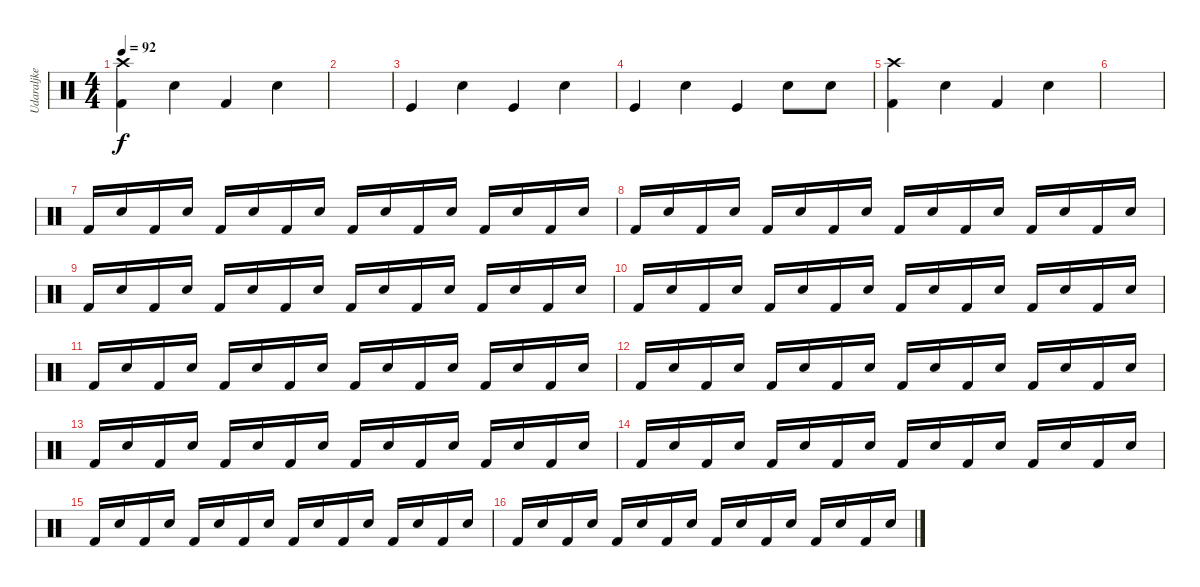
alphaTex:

\track ("Udaraljke" "Udaraljke") {instrument percussion}
\staff {score}
\articulation defaults
\ts (4 4)
\tempo 92
\clef neutral
\ks c
("Crash high (hit)" "Kick (hit) 2").4{dy f} "Electric Snare (hit)".4 "Kick (hit) 2".4 "Electric Snare (hit)".4 |
|
"Kick (hit)".4 "Electric Snare (hit)".4 "Kick (hit)".4 "Electric Snare (hit)".4 |
"Kick (hit)".4 "Electric Snare (hit)".4 "Kick (hit)".4 "Electric Snare (hit)".8 "Snare (hit) 2".8 |
("Crash high (hit)" "Kick (hit) 2").4 "Electric Snare (hit)".4 "Kick (hit) 2".4 "Electric Snare (hit)".4 |
|
"Kick (hit) 2".16 "Electric Snare (hit)".16 "Kick (hit) 2".16 "Electric Snare (hit)".16 "Kick (hit) 2".16 "Electric Snare (hit)".16 "Kick (hit) 2".16 "Electric Snare (hit)".16 "Kick (hit) 2".16 "Electric Snare (hit)".16 "Kick (hit) 2".16 "Electric Snare (hit)".16 "Kick (hit) 2".16 "Electric Snare (hit)".16 "Kick (hit) 2".16 "Snare (hit) 2".16 |
"Kick (hit) 2".16 "Electric Snare (hit)".16 "Kick (hit) 2".16 "Electric Snare (hit)".16 "Kick (hit) 2".16 "Electric Snare (hit)".16 "Kick (hit) 2".16 "Electric Snare (hit)".16 "Kick (hit) 2".16 "Electric Snare (hit)".16 "Kick (hit) 2".16 "Electric Snare (hit)".16 "Kick (hit) 2".16 "Electric Snare (hit)".16 "Kick (hit) 2".16 "Snare (hit) 2".16 |
"Kick (hit) 2".16 "Electric Snare (hit)".16 "Kick (hit) 2".16 "Electric Snare (hit)".16 "Kick (hit) 2".16 "Electric Snare (hit)".16 "Kick (hit) 2".16 "Electric Snare (hit)".16 "Kick (hit) 2".16 "Electric Snare (hit)".16 "Kick (hit) 2".16 "Electric Snare (hit)".16 "Kick (hit) 2".16 "Electric Snare (hit)".16 "Kick (hit) 2".16 "Snare (hit) 2".16 |
"Kick (hit) 2".16 "Electric Snare (hit)".16 "Kick (hit) 2".16 "Electric Snare (hit)".16 "Kick (hit) 2".16 "Electric Snare (hit)".16 "Kick (hit) 2".16 "Electric Snare (hit)".16 "Kick (hit) 2".16 "Electric Snare (hit)".16 "Kick (hit) 2".16 "Electric Snare (hit)".16 "Kick (hit) 2".16 "Electric Snare (hit)".16 "Kick (hit) 2".16 "Snare (hit) 2".16 |
"Kick (hit) 2".16 "Electric Snare (hit)".16 "Kick (hit) 2".16 "Electric Snare (hit)".16 "Kick (hit) 2".16 "Electric Snare (hit)".16 "Kick (hit) 2".16 "Electric Snare (hit)".16 "Kick (hit) 2".16 "Electric Snare (hit)".16 "Kick (hit) 2".16 "Electric Snare (hit)".16 "Kick (hit) 2".16 "Electric Snare (hit)".16 "Kick (hit) 2".16 "Snare (hit) 2".16 |
"Kick (hit) 2".16 "Electric Snare (hit)".16 "Kick (hit) 2".16 "Electric Snare (hit)".16 "Kick (hit) 2".16 "Electric Snare (hit)".16 "Kick (hit) 2".16 "Electric Snare (hit)".16 "Kick (hit) 2".16 "Electric Snare (hit)".16 "Kick (hit) 2".16 "Electric Snare (hit)".16 "Kick (hit) 2".16 "Electric Snare (hit)".16 "Kick (hit) 2".16 "Snare (hit) 2".16 |
"Kick (hit) 2".16 "Electric Snare (hit)".16 "Kick (hit) 2".16 "Electric Snare (hit)".16 "Kick (hit) 2".16 "Electric Snare (hit)".16 "Kick (hit) 2".16 "Electric Snare (hit)".16 "Kick (hit) 2".16 "Electric Snare (hit)".16 "Kick (hit) 2".16 "Electric Snare (hit)".16 "Kick (hit) 2".16 "Electric Snare (hit)".16 "Kick (hit) 2".16 "Snare (hit) 2".16 |
"Kick (hit) 2".16 "Electric Snare (hit)".16 "Kick (hit) 2".16 "Electric Snare (hit)".16 "Kick (hit) 2".16 "Electric Snare (hit)".16 "Kick (hit) 2".16 "Electric Snare (hit)".16 "Kick (hit) 2".16 "Electric Snare (hit)".16 "Kick (hit) 2".16 "Electric Snare (hit)".16 "Kick (hit) 2".16 "Electric Snare (hit)".16 "Kick (hit) 2".16 "Snare (hit) 2".16 |
"Kick (hit) 2".16 "Electric Snare (hit)".16 "Kick (hit) 2".16 "Electric Snare (hit)".16 "Kick (hit) 2".16 "Electric Snare (hit)".16 "Kick (hit) 2".16 "Electric Snare (hit)".16 "Kick (hit) 2".16 "Electric Snare (hit)".16 "Kick (hit) 2".16 "Electric Snare (hit)".16 "Kick (hit) 2".16 "Electric Snare (hit)".16 "Kick (hit) 2".16 "Snare (hit) 2".16 |
"Kick (hit) 2".16 "Electric Snare (hit)".16 "Kick (hit) 2".16 "Electric Snare (hit)".16 "Kick (hit) 2".16 "Electric Snare (hit)".16 "Kick (hit) 2".16 "Electric Snare (hit)".16 "Kick (hit) 2".16 "Electric Snare (hit)".16 "Kick (hit) 2".16 "Electric Snare (hit)".16 "Kick (hit) 2".16 "Electric Snare (hit)".16 "Kick (hit) 2".16 "Snare (hit) 2".16
